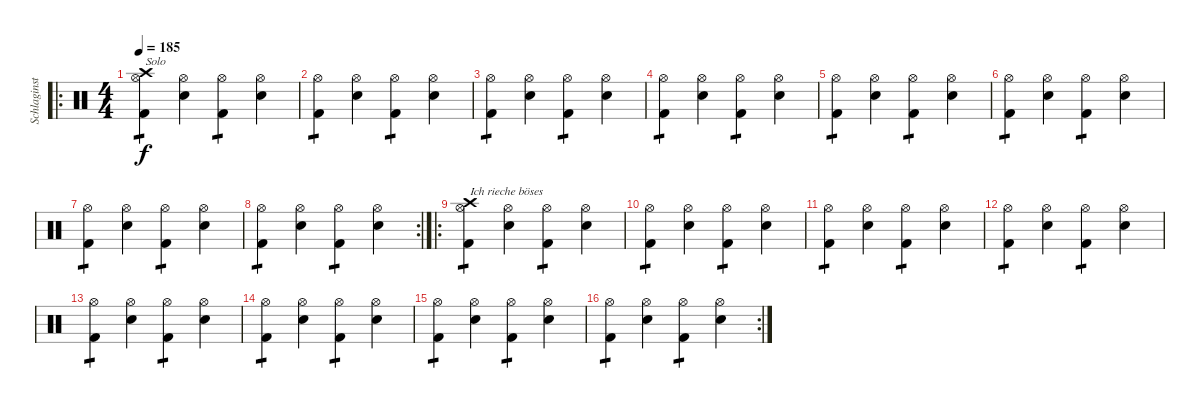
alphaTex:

\track ("Schlaginstrumente - Auswahl" "Schlaginst") {instrument percussion}
\staff {score}
\articulation defaults
\ro
\ts (4 4)
\tempo 185
\clef neutral
\ks c
("Hi-Hat (open)" "Kick (hit) 2" "Crash high (hit)").4{txt "Solo" tp 1 dy f} ("Hi-Hat (open)" "Electric Snare (hit)").4 ("Hi-Hat (open)" "Kick (hit) 2").4{tp 1} ("Hi-Hat (open)" "Electric Snare (hit)").4 |
("Hi-Hat (open)" "Kick (hit) 2").4{tp 1} ("Hi-Hat (open)" "Electric Snare (hit)").4 ("Hi-Hat (open)" "Kick (hit) 2").4{tp 1} ("Hi-Hat (open)" "Electric Snare (hit)").4 |
("Hi-Hat (open)" "Kick (hit) 2").4{tp 1} ("Hi-Hat (open)" "Electric Snare (hit)").4 ("Hi-Hat (open)" "Kick (hit) 2").4{tp 1} ("Hi-Hat (open)" "Electric Snare (hit)").4 |
("Hi-Hat (open)" "Kick (hit) 2").4{tp 1} ("Hi-Hat (open)" "Electric Snare (hit)").4 ("Hi-Hat (open)" "Kick (hit) 2").4{tp 1} ("Hi-Hat (open)" "Electric Snare (hit)").4 |
("Hi-Hat (open)" "Kick (hit) 2").4{tp 1} ("Hi-Hat (open)" "Electric Snare (hit)").4 ("Hi-Hat (open)" "Kick (hit) 2").4{tp 1} ("Hi-Hat (open)" "Electric Snare (hit)").4 |
("Hi-Hat (open)" "Kick (hit) 2").4{tp 1} ("Hi-Hat (open)" "Electric Snare (hit)").4 ("Hi-Hat (open)" "Kick (hit) 2").4{tp 1} ("Hi-Hat (open)" "Electric Snare (hit)").4 |
("Hi-Hat (open)" "Kick (hit) 2").4{tp 1} ("Hi-Hat (open)" "Electric Snare (hit)").4 ("Hi-Hat (open)" "Kick (hit) 2").4{tp 1} ("Hi-Hat (open)" "Electric Snare (hit)").4 |
\rc 2
("Hi-Hat (open)" "Kick (hit) 2").4{tp 1} ("Hi-Hat (open)" "Electric Snare (hit)").4 ("Hi-Hat (open)" "Kick (hit) 2").4{tp 1} ("Hi-Hat (open)" "Electric Snare (hit)").4 |
\ro
("Hi-Hat (open)" "Kick (hit) 2" "Crash high (hit)").4{txt "Ich rieche böses" tp 1} ("Hi-Hat (open)" "Electric Snare (hit)").4 ("Hi-Hat (open)" "Kick (hit) 2").4{tp 1} ("Hi-Hat (open)" "Electric Snare (hit)").4 |
("Hi-Hat (open)" "Kick (hit) 2").4{tp 1} ("Hi-Hat (open)" "Electric Snare (hit)").4 ("Hi-Hat (open)" "Kick (hit) 2").4{tp 1} ("Hi-Hat (open)" "Electric Snare (hit)").4 |
("Hi-Hat (open)" "Kick (hit) 2").4{tp 1} ("Hi-Hat (open)" "Electric Snare (hit)").4 ("Hi-Hat (open)" "Kick (hit) 2").4{tp 1} ("Hi-Hat (open)" "Electric Snare (hit)").4 |
("Hi-Hat (open)" "Kick (hit) 2").4{tp 1} ("Hi-Hat (open)" "Electric Snare (hit)").4 ("Hi-Hat (open)" "Kick (hit) 2").4{tp 1} ("Hi-Hat (open)" "Electric Snare (hit)").4 |
("Hi-Hat (open)" "Kick (hit) 2").4{tp 1} ("Hi-Hat (open)" "Electric Snare (hit)").4 ("Hi-Hat (open)" "Kick (hit) 2").4{tp 1} ("Hi-Hat (open)" "Electric Snare (hit)").4 |
("Hi-Hat (open)" "Kick (hit) 2").4{tp 1} ("Hi-Hat (open)" "Electric Snare (hit)").4 ("Hi-Hat (open)" "Kick (hit) 2").4{tp 1} ("Hi-Hat (open)" "Electric Snare (hit)").4 |
("Hi-Hat (open)" "Kick (hit) 2").4{tp 1} ("Hi-Hat (open)" "Electric Snare (hit)").4 ("Hi-Hat (open)" "Kick (hit) 2").4{tp 1} ("Hi-Hat (open)" "Electric Snare (hit)").4 |
\rc 2
("Hi-Hat (open)" "Kick (hit) 2").4{tp 1} ("Hi-Hat (open)" "Electric Snare (hit)").4 ("Hi-Hat (open)" "Kick (hit) 2").4{tp 1} ("Hi-Hat (open)" "Electric Snare (hit)").4
